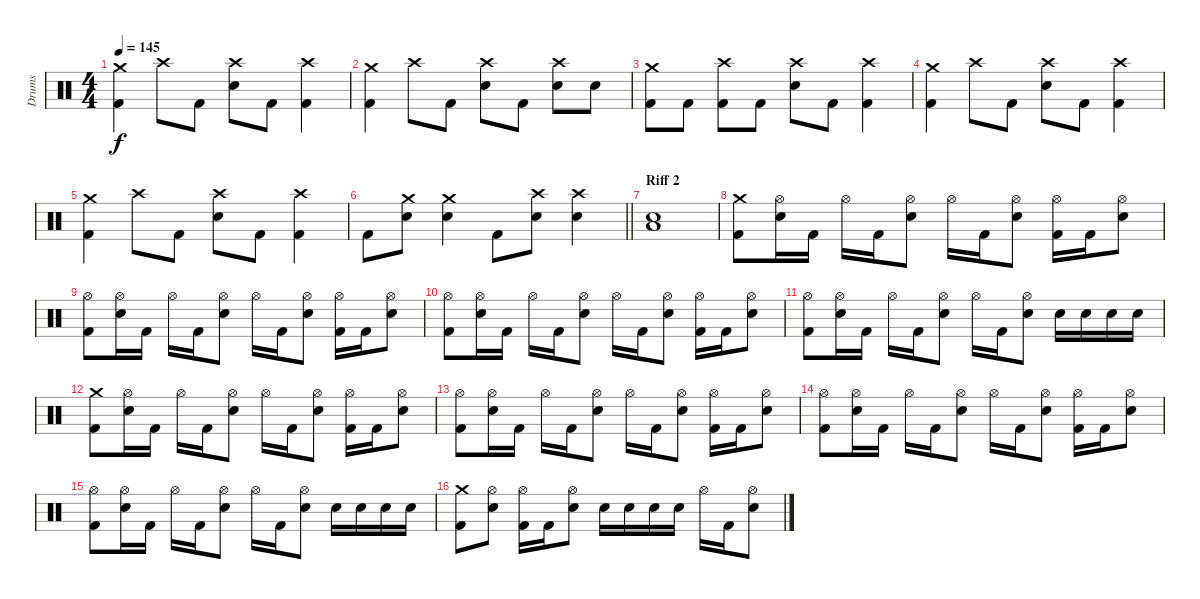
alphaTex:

\track ("Drums" "Drums") {instrument percussion}
\staff {score}
\articulation defaults
\ts (4 4)
\tempo 145
\clef neutral
\ks c
("Crash medium (hit)" "Kick (hit) 2").4{dy f} "Crash high (hit)".8 "Kick (hit) 2".8 ("Crash high (hit)" "Electric Snare (hit)").8 "Kick (hit) 2".8 ("Kick (hit) 2" "Crash high (hit)").4 |
("Crash medium (hit)" "Kick (hit) 2").4 "Crash high (hit)".8 "Kick (hit) 2".8 ("Crash high (hit)" "Electric Snare (hit)").8 "Kick (hit) 2".8 ("Electric Snare (hit)" "Crash high (hit)").8 "Electric Snare (hit)".8 |
("Crash medium (hit)" "Kick (hit) 2").8 "Kick (hit) 2".8 ("Crash high (hit)" "Kick (hit) 2").8 "Kick (hit) 2".8 ("Crash high (hit)" "Electric Snare (hit)").8 "Kick (hit) 2".8 ("Crash high (hit)" "Kick (hit) 2").4 |
("Crash medium (hit)" "Kick (hit) 2").4 "Crash high (hit)".8 "Kick (hit) 2".8 ("Crash high (hit)" "Electric Snare (hit)").8 "Kick (hit) 2".8 ("Kick (hit) 2" "Crash high (hit)").4 |
("Crash medium (hit)" "Kick (hit) 2").4 "Crash high (hit)".8 "Kick (hit) 2".8 ("Crash high (hit)" "Electric Snare (hit)").8 "Kick (hit) 2".8 ("Kick (hit) 2" "Crash high (hit)").4 |
\barLineRight lightlight "Kick (hit) 2".8
("Crash medium (hit)" "Electric Snare (hit)").8 ("Crash medium (hit)" "Electric Snare (hit)").4 "Kick (hit) 2".8 ("Crash high (hit)" "Electric Snare (hit)").8 ("Crash high (hit)" "Electric Snare (hit)").4 |
\section ("" "Riff 2")
("Electric Snare (hit)" "Low Floor Tom (hit)").1 |
("Crash medium (hit)" "Kick (hit) 2").8 ("Hi-Hat (open)" "Electric Snare (hit)").16 "Kick (hit) 2".16 "Hi-Hat (open)".16 "Kick (hit) 2".16 ("Hi-Hat (open)" "Electric Snare (hit)").8 "Hi-Hat (open)".16 "Kick (hit) 2".16 ("Electric Snare (hit)" "Hi-Hat (open)").8 ("Kick (hit) 2" "Hi-Hat (open)").16 "Kick (hit) 2".16 ("Electric Snare (hit)" "Hi-Hat (open)").8 |
("Hi-Hat (open)" "Kick (hit) 2").8 ("Hi-Hat (open)" "Electric Snare (hit)").16 "Kick (hit) 2".16 "Hi-Hat (open)".16 "Kick (hit) 2".16 ("Hi-Hat (open)" "Electric Snare (hit)").8 "Hi-Hat (open)".16 "Kick (hit) 2".16 ("Electric Snare (hit)" "Hi-Hat (open)").8 ("Kick (hit) 2" "Hi-Hat (open)").16 "Kick (hit) 2".16 ("Electric Snare (hit)" "Hi-Hat (open)").8 |
("Hi-Hat (open)" "Kick (hit) 2").8 ("Hi-Hat (open)" "Electric Snare (hit)").16 "Kick (hit) 2".16 "Hi-Hat (open)".16 "Kick (hit) 2".16 ("Hi-Hat (open)" "Electric Snare (hit)").8 "Hi-Hat (open)".16 "Kick (hit) 2".16 ("Electric Snare (hit)" "Hi-Hat (open)").8 ("Kick (hit) 2" "Hi-Hat (open)").16 "Kick (hit) 2".16 ("Electric Snare (hit)" "Hi-Hat (open)").8 |
("Hi-Hat (open)" "Kick (hit) 2").8 ("Hi-Hat (open)" "Electric Snare (hit)").16 "Kick (hit) 2".16 "Hi-Hat (open)".16 "Kick (hit) 2".16 ("Hi-Hat (open)" "Electric Snare (hit)").8 "Hi-Hat (open)".16 "Kick (hit) 2".16 ("Electric Snare (hit)" "Hi-Hat (open)").8 "Electric Snare (hit)".16 "Electric Snare (hit)".16 "Electric Snare (hit)".16 "Electric Snare (hit)".16 |
("Crash medium (hit)" "Kick (hit) 2").8 ("Hi-Hat (open)" "Electric Snare (hit)").16 "Kick (hit) 2".16 "Hi-Hat (open)".16 "Kick (hit) 2".16 ("Hi-Hat (open)" "Electric Snare (hit)").8 "Hi-Hat (open)".16 "Kick (hit) 2".16 ("Electric Snare (hit)" "Hi-Hat (open)").8 ("Kick (hit) 2" "Hi-Hat (open)").16 "Kick (hit) 2".16 ("Electric Snare (hit)" "Hi-Hat (open)").8 |
("Hi-Hat (open)" "Kick (hit) 2").8 ("Hi-Hat (open)" "Electric Snare (hit)").16 "Kick (hit) 2".16 "Hi-Hat (open)".16 "Kick (hit) 2".16 ("Hi-Hat (open)" "Electric Snare (hit)").8 "Hi-Hat (open)".16 "Kick (hit) 2".16 ("Electric Snare (hit)" "Hi-Hat (open)").8 ("Kick (hit) 2" "Hi-Hat (open)").16 "Kick (hit) 2".16 ("Electric Snare (hit)" "Hi-Hat (open)").8 |
("Hi-Hat (open)" "Kick (hit) 2").8 ("Hi-Hat (open)" "Electric Snare (hit)").16 "Kick (hit) 2".16 "Hi-Hat (open)".16 "Kick (hit) 2".16 ("Hi-Hat (open)" "Electric Snare (hit)").8 "Hi-Hat (open)".16 "Kick (hit) 2".16 ("Electric Snare (hit)" "Hi-Hat (open)").8 ("Kick (hit) 2" "Hi-Hat (open)").16 "Kick (hit) 2".16 ("Electric Snare (hit)" "Hi-Hat (open)").8 |
("Hi-Hat (open)" "Kick (hit) 2").8 ("Hi-Hat (open)" "Electric Snare (hit)").16 "Kick (hit) 2".16 "Hi-Hat (open)".16 "Kick (hit) 2".16 ("Hi-Hat (open)" "Electric Snare (hit)").8 "Hi-Hat (open)".16 "Kick (hit) 2".16 ("Electric Snare (hit)" "Hi-Hat (open)").8 "Electric Snare (hit)".16 "Electric Snare (hit)".16 "Electric Snare (hit)".16 "Electric Snare (hit)".16 |
("Crash medium (hit)" "Kick (hit) 2").8 ("Electric Snare (hit)" "Hi-Hat (open)").8 ("Kick (hit) 2" "Hi-Hat (open)").16 "Kick (hit) 2".16 ("Electric Snare (hit)" "Hi-Hat (open)").8 "Electric Snare (hit)".16 "Electric Snare (hit)".16 "Electric Snare (hit)".16 "Electric Snare (hit)".16 "Hi-Hat (open)".16 "Kick (hit) 2".16 ("Electric Snare (hit)" "Hi-Hat (open)").8
